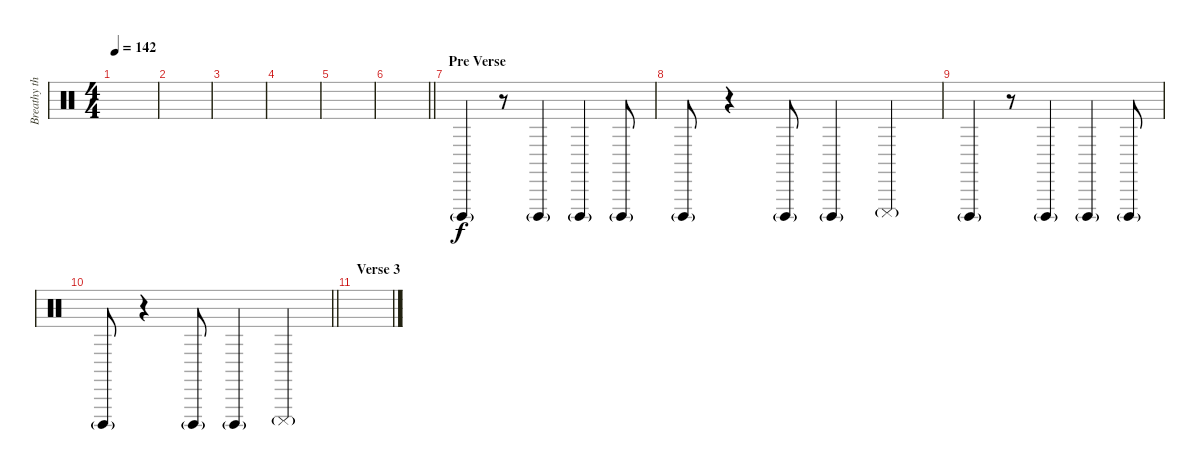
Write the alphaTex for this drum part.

\track ("Breathy things" "Breathy th") {instrument percussion}
\staff {score}
\articulation defaults
\ts (4 4)
\tempo 142
\clef neutral
\ks c
|
|
|
|
|
\barLineRight lightlight
|
\section ("" "Pre Verse")
"Cuica (open)"{g}.4 r.8 "Cuica (open)"{g}.4 "Cuica (open)"{g}.4 "Cuica (open)"{g}.8 |
"Cuica (open)"{g}.8 r.4 "Cuica (open)"{g}.8 "Cuica (open)"{g}.4 "Cuica (mute)"{g}.4 |
"Cuica (open)"{g}.4 r.8 "Cuica (open)"{g}.4 "Cuica (open)"{g}.4 "Cuica (open)"{g}.8 |
\barLineRight lightlight "Cuica (open)"{g}.8
r.4 "Cuica (open)"{g}.8 "Cuica (open)"{g}.4 "Cuica (mute)"{g}.4 |
\section ("" "Verse 3")
